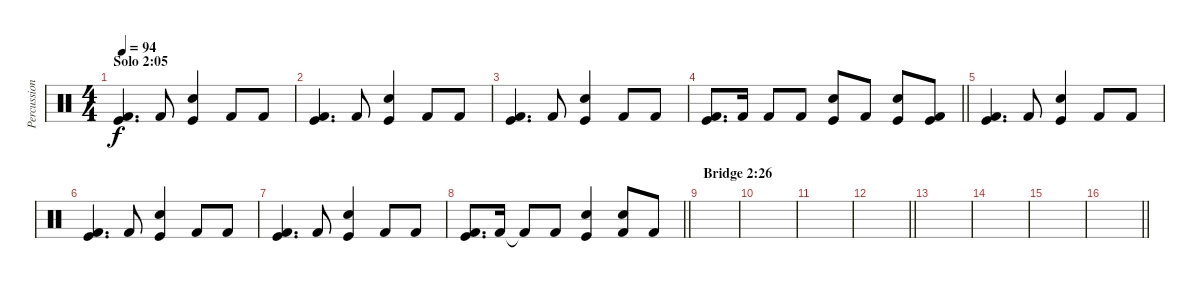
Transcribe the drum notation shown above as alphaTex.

\track ("Percussion" "Percussion") {instrument percussion}
\staff {score}
\articulation defaults
\ts (4 4)
\section ("" "Solo 2:05")
\tempo 94
\clef neutral
\ks c
("Kick (hit)" "Kick (hit) 2").4{d dy f} "Kick (hit) 2".8 ("Electric Snare (hit)" "Kick (hit)").4 "Kick (hit) 2".8 "Kick (hit) 2".8 |
("Kick (hit)" "Kick (hit) 2").4{d} "Kick (hit) 2".8 ("Electric Snare (hit)" "Kick (hit)").4 "Kick (hit) 2".8 "Kick (hit) 2".8 |
("Kick (hit)" "Kick (hit) 2").4{d} "Kick (hit) 2".8 ("Electric Snare (hit)" "Kick (hit)").4 "Kick (hit) 2".8 "Kick (hit) 2".8 |
\barLineRight lightlight
("Kick (hit)" "Kick (hit) 2").8{d} "Kick (hit) 2".16 "Kick (hit) 2".8 "Kick (hit) 2".8 ("Electric Snare (hit)" "Kick (hit)").8 "Kick (hit) 2".8 ("Electric Snare (hit)" "Kick (hit)").8 ("Kick (hit)" "Kick (hit) 2").8 |
("Kick (hit)" "Kick (hit) 2").4{d} "Kick (hit) 2".8 ("Electric Snare (hit)" "Kick (hit)").4 "Kick (hit) 2".8 "Kick (hit) 2".8 |
("Kick (hit)" "Kick (hit) 2").4{d} "Kick (hit) 2".8 ("Electric Snare (hit)" "Kick (hit)").4 "Kick (hit) 2".8 "Kick (hit) 2".8 |
("Kick (hit)" "Kick (hit) 2").4{d} "Kick (hit) 2".8 ("Electric Snare (hit)" "Kick (hit)").4 "Kick (hit) 2".8 "Kick (hit) 2".8 |
\barLineRight lightlight
("Kick (hit)" "Kick (hit) 2").8{d} "Kick (hit) 2".16 "Kick (hit) 2"{t}.8 "Kick (hit) 2".8 ("Electric Snare (hit)" "Kick (hit)").4 ("Electric Snare (hit)" "Kick (hit) 2").8 "Kick (hit) 2".8 |
\section ("" "Bridge 2:26")
|
|
|
\barLineRight lightlight
|
|
|
|
\barLineRight lightlight
